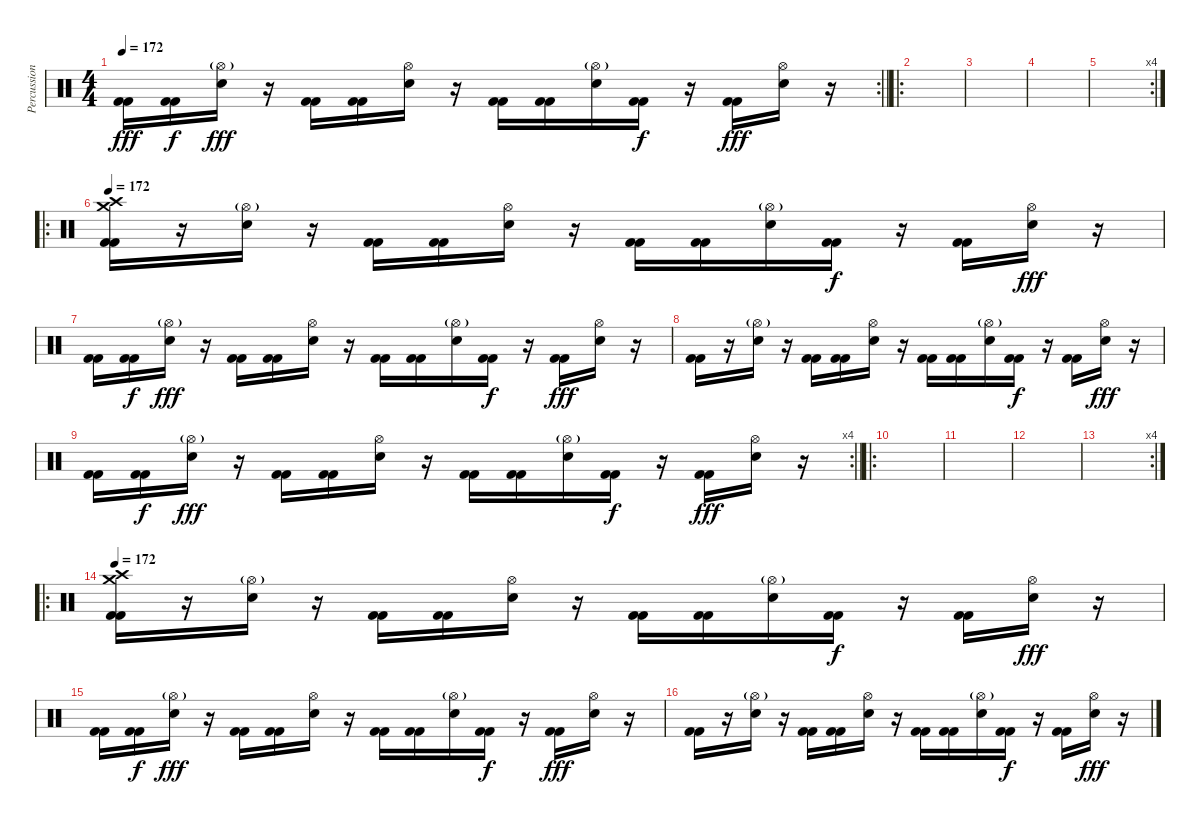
\track ("Percussion" "Percussion") {instrument percussion}
\staff {score}
\articulation defaults
\rc 2
\ts (4 4)
\tempo 172
\clef neutral
\barLineRight lightlight
\ks c
("Kick (hit) 2" "Kick (hit) 2").16{dy fff} ("Kick (hit) 2" "Kick (hit) 2").16{dy f} ("Hi-Hat (open)"{g} "Electric Snare (hit)").16{dy fff} r.16 ("Kick (hit) 2" "Kick (hit) 2").16 ("Kick (hit) 2" "Kick (hit) 2").16 ("Hi-Hat (open)" "Electric Snare (hit)").16 r.16 ("Kick (hit) 2" "Kick (hit) 2").16 ("Kick (hit) 2" "Kick (hit) 2").16 ("Hi-Hat (open)"{g} "Electric Snare (hit)").16 ("Kick (hit) 2" "Kick (hit) 2").16{dy f} r.16 ("Kick (hit) 2" "Kick (hit) 2").16{dy fff} ("Hi-Hat (open)" "Electric Snare (hit)").16 r.16 |
\ro
|
|
|
\rc 4
|
\ro
\tempo 172
("Crash medium (hit)" "Crash high (hit)" "Kick (hit) 2" "Kick (hit) 2").16 r.16 ("Hi-Hat (open)"{g} "Electric Snare (hit)").16 r.16 ("Kick (hit) 2" "Kick (hit) 2").16 ("Kick (hit) 2" "Kick (hit) 2").16 ("Hi-Hat (open)" "Electric Snare (hit)").16 r.16 ("Kick (hit) 2" "Kick (hit) 2").16 ("Kick (hit) 2" "Kick (hit) 2").16 ("Hi-Hat (open)"{g} "Electric Snare (hit)").16 ("Kick (hit) 2" "Kick (hit) 2").16{dy f} r.16 ("Kick (hit) 2" "Kick (hit) 2").16 ("Hi-Hat (open)" "Electric Snare (hit)").16{dy fff} r.16 |
("Kick (hit) 2" "Kick (hit) 2").16 ("Kick (hit) 2" "Kick (hit) 2").16{dy f} ("Hi-Hat (open)"{g} "Electric Snare (hit)").16{dy fff} r.16 ("Kick (hit) 2" "Kick (hit) 2").16 ("Kick (hit) 2" "Kick (hit) 2").16 ("Hi-Hat (open)" "Electric Snare (hit)").16 r.16 ("Kick (hit) 2" "Kick (hit) 2").16 ("Kick (hit) 2" "Kick (hit) 2").16 ("Hi-Hat (open)"{g} "Electric Snare (hit)").16 ("Kick (hit) 2" "Kick (hit) 2").16{dy f} r.16 ("Kick (hit) 2" "Kick (hit) 2").16{dy fff} ("Hi-Hat (open)" "Electric Snare (hit)").16 r.16 |
("Kick (hit) 2" "Kick (hit) 2").16 r.16 ("Hi-Hat (open)"{g} "Electric Snare (hit)").16 r.16 ("Kick (hit) 2" "Kick (hit) 2").16 ("Kick (hit) 2" "Kick (hit) 2").16 ("Hi-Hat (open)" "Electric Snare (hit)").16 r.16 ("Kick (hit) 2" "Kick (hit) 2").16 ("Kick (hit) 2" "Kick (hit) 2").16 ("Hi-Hat (open)"{g} "Electric Snare (hit)").16 ("Kick (hit) 2" "Kick (hit) 2").16{dy f} r.16 ("Kick (hit) 2" "Kick (hit) 2").16 ("Hi-Hat (open)" "Electric Snare (hit)").16{dy fff} r.16 |
\rc 4
\barLineRight lightlight
("Kick (hit) 2" "Kick (hit) 2").16 ("Kick (hit) 2" "Kick (hit) 2").16{dy f} ("Hi-Hat (open)"{g} "Electric Snare (hit)").16{dy fff} r.16 ("Kick (hit) 2" "Kick (hit) 2").16 ("Kick (hit) 2" "Kick (hit) 2").16 ("Hi-Hat (open)" "Electric Snare (hit)").16 r.16 ("Kick (hit) 2" "Kick (hit) 2").16 ("Kick (hit) 2" "Kick (hit) 2").16 ("Hi-Hat (open)"{g} "Electric Snare (hit)").16 ("Kick (hit) 2" "Kick (hit) 2").16{dy f} r.16 ("Kick (hit) 2" "Kick (hit) 2").16{dy fff} ("Hi-Hat (open)" "Electric Snare (hit)").16 r.16 |
\ro
|
|
|
\rc 4
|
\ro
\tempo 172
("Crash medium (hit)" "Crash high (hit)" "Kick (hit) 2" "Kick (hit) 2").16 r.16 ("Hi-Hat (open)"{g} "Electric Snare (hit)").16 r.16 ("Kick (hit) 2" "Kick (hit) 2").16 ("Kick (hit) 2" "Kick (hit) 2").16 ("Hi-Hat (open)" "Electric Snare (hit)").16 r.16 ("Kick (hit) 2" "Kick (hit) 2").16 ("Kick (hit) 2" "Kick (hit) 2").16 ("Hi-Hat (open)"{g} "Electric Snare (hit)").16 ("Kick (hit) 2" "Kick (hit) 2").16{dy f} r.16 ("Kick (hit) 2" "Kick (hit) 2").16 ("Hi-Hat (open)" "Electric Snare (hit)").16{dy fff} r.16 |
("Kick (hit) 2" "Kick (hit) 2").16 ("Kick (hit) 2" "Kick (hit) 2").16{dy f} ("Hi-Hat (open)"{g} "Electric Snare (hit)").16{dy fff} r.16 ("Kick (hit) 2" "Kick (hit) 2").16 ("Kick (hit) 2" "Kick (hit) 2").16 ("Hi-Hat (open)" "Electric Snare (hit)").16 r.16 ("Kick (hit) 2" "Kick (hit) 2").16 ("Kick (hit) 2" "Kick (hit) 2").16 ("Hi-Hat (open)"{g} "Electric Snare (hit)").16 ("Kick (hit) 2" "Kick (hit) 2").16{dy f} r.16 ("Kick (hit) 2" "Kick (hit) 2").16{dy fff} ("Hi-Hat (open)" "Electric Snare (hit)").16 r.16 |
("Kick (hit) 2" "Kick (hit) 2").16 r.16 ("Hi-Hat (open)"{g} "Electric Snare (hit)").16 r.16 ("Kick (hit) 2" "Kick (hit) 2").16 ("Kick (hit) 2" "Kick (hit) 2").16 ("Hi-Hat (open)" "Electric Snare (hit)").16 r.16 ("Kick (hit) 2" "Kick (hit) 2").16 ("Kick (hit) 2" "Kick (hit) 2").16 ("Hi-Hat (open)"{g} "Electric Snare (hit)").16 ("Kick (hit) 2" "Kick (hit) 2").16{dy f} r.16 ("Kick (hit) 2" "Kick (hit) 2").16 ("Hi-Hat (open)" "Electric Snare (hit)").16{dy fff} r.16
